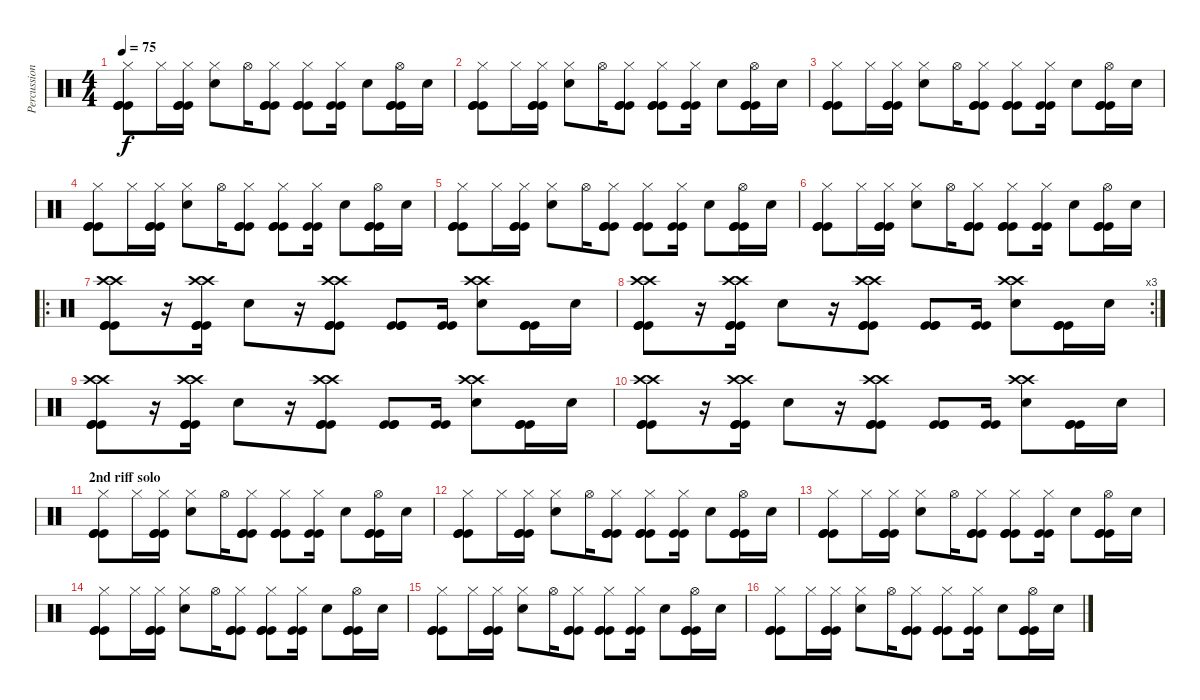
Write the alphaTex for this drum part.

\track ("Percussion" "Percussion") {instrument percussion}
\staff {score}
\articulation defaults
\ts (4 4)
\tempo 75
\clef neutral
\ks c
("Kick (hit)" "Kick (hit)" "Kick (hit)" "Hi-Hat (closed)").8{dy f} "Hi-Hat (closed)".16 ("Kick (hit)" "Kick (hit)" "Kick (hit)" "Hi-Hat (closed)").16 ("Electric Snare (hit)" "Hi-Hat (closed)").8 "Hi-Hat (open)".16 ("Kick (hit)" "Kick (hit)" "Kick (hit)" "Hi-Hat (closed)").8 ("Kick (hit)" "Kick (hit)" "Kick (hit)" "Hi-Hat (closed)").8 ("Kick (hit)" "Kick (hit)" "Hi-Hat (closed)").16 "Electric Snare (hit)".8 ("Kick (hit)" "Kick (hit)" "Kick (hit)" "Hi-Hat (open)").16 "Electric Snare (hit)".16 |
("Kick (hit)" "Kick (hit)" "Kick (hit)" "Hi-Hat (closed)").8 "Hi-Hat (closed)".16 ("Kick (hit)" "Kick (hit)" "Kick (hit)" "Hi-Hat (closed)").16 ("Electric Snare (hit)" "Hi-Hat (closed)").8 "Hi-Hat (open)".16 ("Kick (hit)" "Kick (hit)" "Kick (hit)" "Hi-Hat (closed)").8 ("Kick (hit)" "Kick (hit)" "Kick (hit)" "Hi-Hat (closed)").8 ("Kick (hit)" "Kick (hit)" "Hi-Hat (closed)").16 "Electric Snare (hit)".8 ("Kick (hit)" "Kick (hit)" "Kick (hit)" "Hi-Hat (open)").16 "Electric Snare (hit)".16 |
("Kick (hit)" "Kick (hit)" "Kick (hit)" "Hi-Hat (closed)").8 "Hi-Hat (closed)".16 ("Kick (hit)" "Kick (hit)" "Kick (hit)" "Hi-Hat (closed)").16 ("Electric Snare (hit)" "Hi-Hat (closed)").8 "Hi-Hat (open)".16 ("Kick (hit)" "Kick (hit)" "Kick (hit)" "Hi-Hat (closed)").8 ("Kick (hit)" "Kick (hit)" "Kick (hit)" "Hi-Hat (closed)").8 ("Kick (hit)" "Kick (hit)" "Hi-Hat (closed)").16 "Electric Snare (hit)".8 ("Kick (hit)" "Kick (hit)" "Kick (hit)" "Hi-Hat (open)").16 "Electric Snare (hit)".16 |
("Kick (hit)" "Kick (hit)" "Kick (hit)" "Hi-Hat (closed)").8 "Hi-Hat (closed)".16 ("Kick (hit)" "Kick (hit)" "Kick (hit)" "Hi-Hat (closed)").16 ("Electric Snare (hit)" "Hi-Hat (closed)").8 "Hi-Hat (open)".16 ("Kick (hit)" "Kick (hit)" "Kick (hit)" "Hi-Hat (closed)").8 ("Kick (hit)" "Kick (hit)" "Kick (hit)" "Hi-Hat (closed)").8 ("Kick (hit)" "Kick (hit)" "Hi-Hat (closed)").16 "Electric Snare (hit)".8 ("Kick (hit)" "Kick (hit)" "Kick (hit)" "Hi-Hat (open)").16 "Electric Snare (hit)".16 |
("Kick (hit)" "Kick (hit)" "Kick (hit)" "Hi-Hat (closed)").8 "Hi-Hat (closed)".16 ("Kick (hit)" "Kick (hit)" "Kick (hit)" "Hi-Hat (closed)").16 ("Electric Snare (hit)" "Hi-Hat (closed)").8 "Hi-Hat (open)".16 ("Kick (hit)" "Kick (hit)" "Kick (hit)" "Hi-Hat (closed)").8 ("Kick (hit)" "Kick (hit)" "Kick (hit)" "Hi-Hat (closed)").8 ("Kick (hit)" "Kick (hit)" "Hi-Hat (closed)").16 "Electric Snare (hit)".8 ("Kick (hit)" "Kick (hit)" "Kick (hit)" "Hi-Hat (open)").16 "Electric Snare (hit)".16 |
("Kick (hit)" "Kick (hit)" "Kick (hit)" "Hi-Hat (closed)").8 "Hi-Hat (closed)".16 ("Kick (hit)" "Kick (hit)" "Kick (hit)" "Hi-Hat (closed)").16 ("Electric Snare (hit)" "Hi-Hat (closed)").8 "Hi-Hat (open)".16 ("Kick (hit)" "Kick (hit)" "Kick (hit)" "Hi-Hat (closed)").8 ("Kick (hit)" "Kick (hit)" "Kick (hit)" "Hi-Hat (closed)").8 ("Kick (hit)" "Kick (hit)" "Hi-Hat (closed)").16 "Electric Snare (hit)".8 ("Kick (hit)" "Kick (hit)" "Kick (hit)" "Hi-Hat (open)").16 "Electric Snare (hit)".16 |
\ro
("Kick (hit)" "Kick (hit)" "Kick (hit)" "Crash high (hit)" "Crash high (hit)").8 r.16 ("Kick (hit)" "Kick (hit)" "Kick (hit)" "Crash high (hit)" "Crash high (hit)").16 "Electric Snare (hit)".8 r.16 ("Kick (hit)" "Kick (hit)" "Kick (hit)" "Crash high (hit)" "Crash high (hit)").8 ("Kick (hit)" "Kick (hit)" "Kick (hit)").8 ("Kick (hit)" "Kick (hit)").16 ("Electric Snare (hit)" "Crash high (hit)" "Crash high (hit)").8 ("Kick (hit)" "Kick (hit)" "Kick (hit)").16 "Electric Snare (hit)".16 |
\rc 3
("Kick (hit)" "Kick (hit)" "Kick (hit)" "Crash high (hit)" "Crash high (hit)").8 r.16 ("Kick (hit)" "Kick (hit)" "Kick (hit)" "Crash high (hit)" "Crash high (hit)").16 "Electric Snare (hit)".8 r.16 ("Kick (hit)" "Kick (hit)" "Kick (hit)" "Crash high (hit)" "Crash high (hit)").8 ("Kick (hit)" "Kick (hit)" "Kick (hit)").8 ("Kick (hit)" "Kick (hit)").16 ("Electric Snare (hit)" "Crash high (hit)" "Crash high (hit)").8 ("Kick (hit)" "Kick (hit)" "Kick (hit)").16 "Electric Snare (hit)".16 |
("Kick (hit)" "Kick (hit)" "Kick (hit)" "Crash high (hit)" "Crash high (hit)").8 r.16 ("Kick (hit)" "Kick (hit)" "Kick (hit)" "Crash high (hit)" "Crash high (hit)").16 "Electric Snare (hit)".8 r.16 ("Kick (hit)" "Kick (hit)" "Kick (hit)" "Crash high (hit)" "Crash high (hit)").8 ("Kick (hit)" "Kick (hit)" "Kick (hit)").8 ("Kick (hit)" "Kick (hit)").16 ("Electric Snare (hit)" "Crash high (hit)" "Crash high (hit)").8 ("Kick (hit)" "Kick (hit)" "Kick (hit)").16 "Electric Snare (hit)".16 |
("Kick (hit)" "Kick (hit)" "Kick (hit)" "Crash high (hit)" "Crash high (hit)").8 r.16 ("Kick (hit)" "Kick (hit)" "Kick (hit)" "Crash high (hit)" "Crash high (hit)").16 "Electric Snare (hit)".8 r.16 ("Kick (hit)" "Kick (hit)" "Kick (hit)" "Crash high (hit)" "Crash high (hit)").8 ("Kick (hit)" "Kick (hit)" "Kick (hit)").8 ("Kick (hit)" "Kick (hit)").16 ("Electric Snare (hit)" "Crash high (hit)" "Crash high (hit)").8 ("Kick (hit)" "Kick (hit)" "Kick (hit)").16 "Electric Snare (hit)".16 |
\section ("" "2nd riff solo")
("Kick (hit)" "Kick (hit)" "Kick (hit)" "Hi-Hat (closed)").8 "Hi-Hat (closed)".16 ("Kick (hit)" "Kick (hit)" "Kick (hit)" "Hi-Hat (closed)").16 ("Electric Snare (hit)" "Hi-Hat (closed)").8 "Hi-Hat (open)".16 ("Kick (hit)" "Kick (hit)" "Kick (hit)" "Hi-Hat (closed)").8 ("Kick (hit)" "Kick (hit)" "Kick (hit)" "Hi-Hat (closed)").8 ("Kick (hit)" "Kick (hit)" "Hi-Hat (closed)").16 "Electric Snare (hit)".8 ("Kick (hit)" "Kick (hit)" "Kick (hit)" "Hi-Hat (open)").16 "Electric Snare (hit)".16 |
("Kick (hit)" "Kick (hit)" "Kick (hit)" "Hi-Hat (closed)").8 "Hi-Hat (closed)".16 ("Kick (hit)" "Kick (hit)" "Kick (hit)" "Hi-Hat (closed)").16 ("Electric Snare (hit)" "Hi-Hat (closed)").8 "Hi-Hat (open)".16 ("Kick (hit)" "Kick (hit)" "Kick (hit)" "Hi-Hat (closed)").8 ("Kick (hit)" "Kick (hit)" "Kick (hit)" "Hi-Hat (closed)").8 ("Kick (hit)" "Kick (hit)" "Hi-Hat (closed)").16 "Electric Snare (hit)".8 ("Kick (hit)" "Kick (hit)" "Kick (hit)" "Hi-Hat (open)").16 "Electric Snare (hit)".16 |
("Kick (hit)" "Kick (hit)" "Kick (hit)" "Hi-Hat (closed)").8 "Hi-Hat (closed)".16 ("Kick (hit)" "Kick (hit)" "Kick (hit)" "Hi-Hat (closed)").16 ("Electric Snare (hit)" "Hi-Hat (closed)").8 "Hi-Hat (open)".16 ("Kick (hit)" "Kick (hit)" "Kick (hit)" "Hi-Hat (closed)").8 ("Kick (hit)" "Kick (hit)" "Kick (hit)" "Hi-Hat (closed)").8 ("Kick (hit)" "Kick (hit)" "Hi-Hat (closed)").16 "Electric Snare (hit)".8 ("Kick (hit)" "Kick (hit)" "Kick (hit)" "Hi-Hat (open)").16 "Electric Snare (hit)".16 |
("Kick (hit)" "Kick (hit)" "Kick (hit)" "Hi-Hat (closed)").8 "Hi-Hat (closed)".16 ("Kick (hit)" "Kick (hit)" "Kick (hit)" "Hi-Hat (closed)").16 ("Electric Snare (hit)" "Hi-Hat (closed)").8 "Hi-Hat (open)".16 ("Kick (hit)" "Kick (hit)" "Kick (hit)" "Hi-Hat (closed)").8 ("Kick (hit)" "Kick (hit)" "Kick (hit)" "Hi-Hat (closed)").8 ("Kick (hit)" "Kick (hit)" "Hi-Hat (closed)").16 "Electric Snare (hit)".8 ("Kick (hit)" "Kick (hit)" "Kick (hit)" "Hi-Hat (open)").16 "Electric Snare (hit)".16 |
("Kick (hit)" "Kick (hit)" "Kick (hit)" "Hi-Hat (closed)").8 "Hi-Hat (closed)".16 ("Kick (hit)" "Kick (hit)" "Kick (hit)" "Hi-Hat (closed)").16 ("Electric Snare (hit)" "Hi-Hat (closed)").8 "Hi-Hat (open)".16 ("Kick (hit)" "Kick (hit)" "Kick (hit)" "Hi-Hat (closed)").8 ("Kick (hit)" "Kick (hit)" "Kick (hit)" "Hi-Hat (closed)").8 ("Kick (hit)" "Kick (hit)" "Hi-Hat (closed)").16 "Electric Snare (hit)".8 ("Kick (hit)" "Kick (hit)" "Kick (hit)" "Hi-Hat (open)").16 "Electric Snare (hit)".16 |
("Kick (hit)" "Kick (hit)" "Kick (hit)" "Hi-Hat (closed)").8 "Hi-Hat (closed)".16 ("Kick (hit)" "Kick (hit)" "Kick (hit)" "Hi-Hat (closed)").16 ("Electric Snare (hit)" "Hi-Hat (closed)").8 "Hi-Hat (open)".16 ("Kick (hit)" "Kick (hit)" "Kick (hit)" "Hi-Hat (closed)").8 ("Kick (hit)" "Kick (hit)" "Kick (hit)" "Hi-Hat (closed)").8 ("Kick (hit)" "Kick (hit)" "Hi-Hat (closed)").16 "Electric Snare (hit)".8 ("Kick (hit)" "Kick (hit)" "Kick (hit)" "Hi-Hat (open)").16 "Electric Snare (hit)".16
